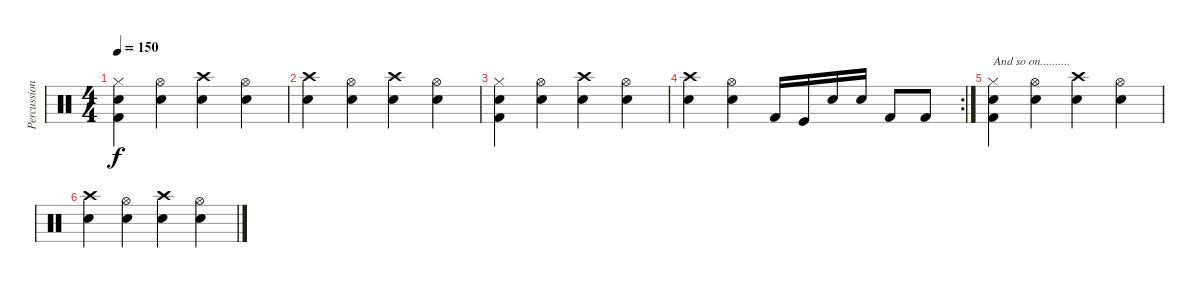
\track ("Percussion" "Percussion") {instrument percussion}
\staff {score}
\articulation defaults
\ts (4 4)
\tempo 150
\clef neutral
\ks c
("Hi-Hat (closed)" "Snare (hit) 2" "Kick (hit) 2").4{dy f} ("Hi-Hat (open)" "Snare (hit) 2").4 ("Crash high (hit)" "Snare (hit) 2").4 ("Hi-Hat (open)" "Snare (hit) 2").4 |
("Crash high (hit)" "Snare (hit) 2").4 ("Hi-Hat (open)" "Snare (hit) 2").4 ("Crash high (hit)" "Snare (hit) 2").4 ("Hi-Hat (open)" "Snare (hit) 2").4 |
("Hi-Hat (closed)" "Snare (hit) 2" "Kick (hit) 2").4 ("Hi-Hat (open)" "Snare (hit) 2").4 ("Crash high (hit)" "Snare (hit) 2").4 ("Hi-Hat (open)" "Snare (hit) 2").4 |
\rc 2
("Crash high (hit)" "Snare (hit) 2").4 ("Hi-Hat (open)" "Snare (hit) 2").4 "Kick (hit) 2".16 "Kick (hit)".16 "Snare (hit) 2".16 "Snare (hit) 2".16 "Kick (hit) 2".8 "Kick (hit) 2".8 |
("Hi-Hat (closed)" "Snare (hit) 2" "Kick (hit) 2").4{txt "And so on.........."} ("Hi-Hat (open)" "Snare (hit) 2").4 ("Crash high (hit)" "Snare (hit) 2").4 ("Hi-Hat (open)" "Snare (hit) 2").4 |
("Crash high (hit)" "Snare (hit) 2").4 ("Hi-Hat (open)" "Snare (hit) 2").4 ("Crash high (hit)" "Snare (hit) 2").4 ("Hi-Hat (open)" "Snare (hit) 2").4
